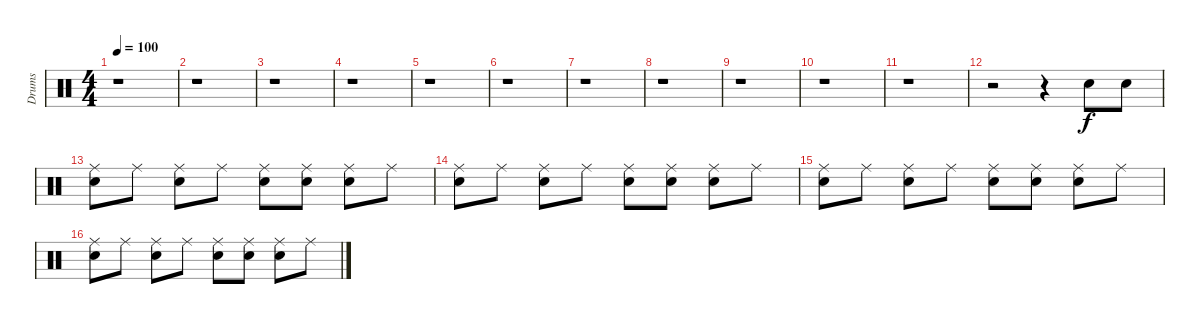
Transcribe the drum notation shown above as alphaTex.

\track ("Drums" "Drums") {instrument percussion}
\staff {score}
\articulation defaults
\ts (4 4)
\tempo 100
\clef neutral
\ks c
r.1{dy f} |
r.1 |
r.1 |
r.1 |
r.1 |
r.1 |
r.1 |
r.1 |
r.1 |
r.1 |
r.1 |
r.2 r.4 "Electric Snare (hit)".8 "Electric Snare (hit)".8 |
("Ride (middle)" "Snare (hit) 2").8 "Ride (middle)".8 ("Ride (middle)" "Electric Snare (hit)").8 "Ride (middle)".8 ("Ride (middle)" "Snare (hit) 2").8 ("Ride (middle)" "Snare (hit) 2").8 ("Ride (middle)" "Electric Snare (hit)").8 "Ride (middle)".8 |
("Ride (middle)" "Snare (hit) 2").8 "Ride (middle)".8 ("Ride (middle)" "Electric Snare (hit)").8 "Ride (middle)".8 ("Ride (middle)" "Snare (hit) 2").8 ("Ride (middle)" "Snare (hit) 2").8 ("Ride (middle)" "Electric Snare (hit)").8 "Ride (middle)".8 |
("Ride (middle)" "Snare (hit) 2").8 "Ride (middle)".8 ("Ride (middle)" "Electric Snare (hit)").8 "Ride (middle)".8 ("Ride (middle)" "Snare (hit) 2").8 ("Ride (middle)" "Snare (hit) 2").8 ("Ride (middle)" "Electric Snare (hit)").8 "Ride (middle)".8 |
("Ride (middle)" "Snare (hit) 2").8 "Ride (middle)".8 ("Ride (middle)" "Electric Snare (hit)").8 "Ride (middle)".8 ("Ride (middle)" "Snare (hit) 2").8 ("Ride (middle)" "Snare (hit) 2").8 ("Ride (middle)" "Electric Snare (hit)").8 "Ride (middle)".8
